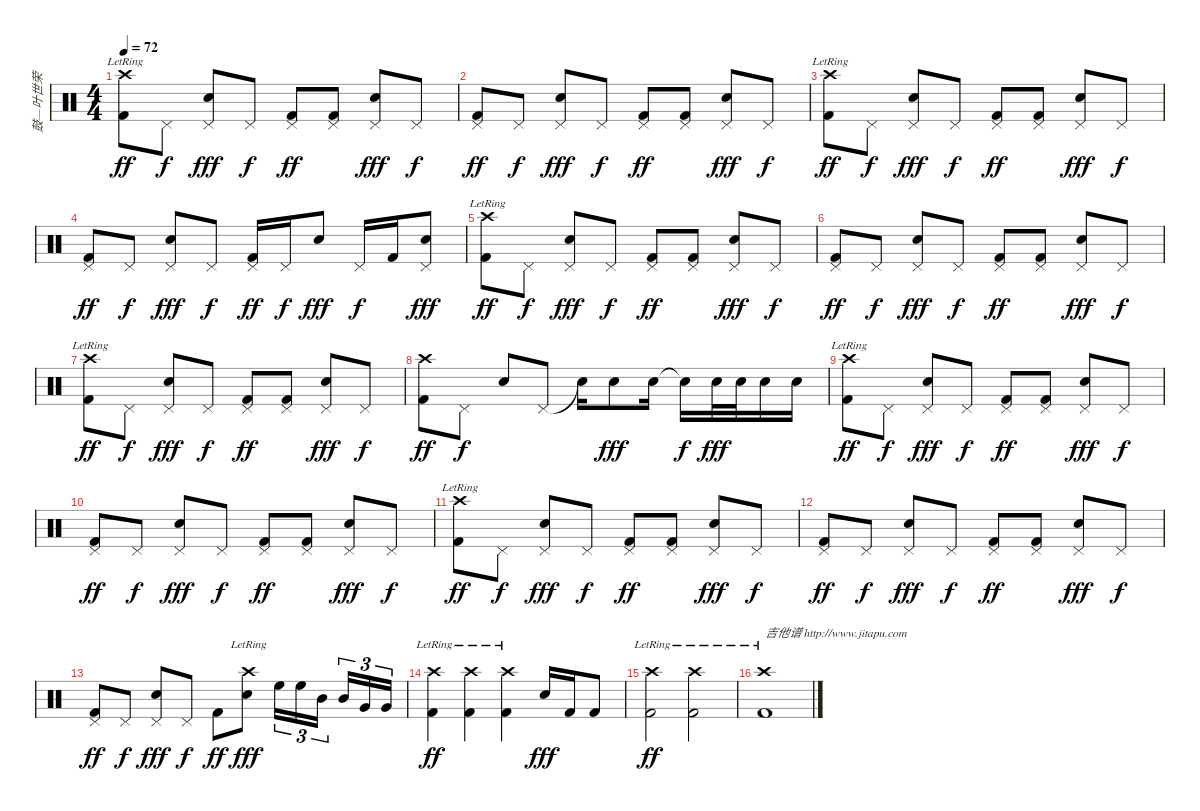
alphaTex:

\track ("鼓—叶世荣" "鼓—叶世荣") {instrument percussion}
\staff {score}
\articulation defaults
\ts (4 4)
\tempo 72
\clef neutral
\ks c
("Crash high (hit)"{lr} "Kick (hit) 2").8{dy ff} "Pedal Hi-Hat (hit)".8{dy f} ("Pedal Hi-Hat (hit)" "Electric Snare (hit)").8{dy fff} "Pedal Hi-Hat (hit)".8{dy f} ("Pedal Hi-Hat (hit)" "Kick (hit) 2").8{dy ff} ("Pedal Hi-Hat (hit)" "Kick (hit) 2").8 ("Pedal Hi-Hat (hit)" "Electric Snare (hit)").8{dy fff} "Pedal Hi-Hat (hit)".8{dy f} |
("Pedal Hi-Hat (hit)" "Kick (hit) 2").8{dy ff} "Pedal Hi-Hat (hit)".8{dy f} ("Pedal Hi-Hat (hit)" "Electric Snare (hit)").8{dy fff} "Pedal Hi-Hat (hit)".8{dy f} ("Pedal Hi-Hat (hit)" "Kick (hit) 2").8{dy ff} ("Pedal Hi-Hat (hit)" "Kick (hit) 2").8 ("Pedal Hi-Hat (hit)" "Electric Snare (hit)").8{dy fff} "Pedal Hi-Hat (hit)".8{dy f} |
("Crash high (hit)"{lr} "Kick (hit) 2").8{dy ff} "Pedal Hi-Hat (hit)".8{dy f} ("Pedal Hi-Hat (hit)" "Electric Snare (hit)").8{dy fff} "Pedal Hi-Hat (hit)".8{dy f} ("Pedal Hi-Hat (hit)" "Kick (hit) 2").8{dy ff} ("Pedal Hi-Hat (hit)" "Kick (hit) 2").8 ("Pedal Hi-Hat (hit)" "Electric Snare (hit)").8{dy fff} "Pedal Hi-Hat (hit)".8{dy f} |
("Pedal Hi-Hat (hit)" "Kick (hit) 2").8{dy ff} "Pedal Hi-Hat (hit)".8{dy f} ("Pedal Hi-Hat (hit)" "Electric Snare (hit)").8{dy fff} "Pedal Hi-Hat (hit)".8{dy f} ("Pedal Hi-Hat (hit)" "Kick (hit) 2").16{dy ff} "Pedal Hi-Hat (hit)".16{dy f} "Electric Snare (hit)".8{dy fff} "Pedal Hi-Hat (hit)".16{dy f} "Kick (hit) 2".16 ("Pedal Hi-Hat (hit)" "Electric Snare (hit)").8{dy fff} |
("Crash high (hit)"{lr} "Kick (hit) 2").8{dy ff} "Pedal Hi-Hat (hit)".8{dy f} ("Pedal Hi-Hat (hit)" "Electric Snare (hit)").8{dy fff} "Pedal Hi-Hat (hit)".8{dy f} ("Pedal Hi-Hat (hit)" "Kick (hit) 2").8{dy ff} ("Pedal Hi-Hat (hit)" "Kick (hit) 2").8 ("Pedal Hi-Hat (hit)" "Electric Snare (hit)").8{dy fff} "Pedal Hi-Hat (hit)".8{dy f} |
("Pedal Hi-Hat (hit)" "Kick (hit) 2").8{dy ff} "Pedal Hi-Hat (hit)".8{dy f} ("Pedal Hi-Hat (hit)" "Electric Snare (hit)").8{dy fff} "Pedal Hi-Hat (hit)".8{dy f} ("Pedal Hi-Hat (hit)" "Kick (hit) 2").8{dy ff} ("Pedal Hi-Hat (hit)" "Kick (hit) 2").8 ("Pedal Hi-Hat (hit)" "Electric Snare (hit)").8{dy fff} "Pedal Hi-Hat (hit)".8{dy f} |
("Crash high (hit)"{lr} "Kick (hit) 2").8{dy ff} "Pedal Hi-Hat (hit)".8{dy f} ("Pedal Hi-Hat (hit)" "Electric Snare (hit)").8{dy fff} "Pedal Hi-Hat (hit)".8{dy f} ("Pedal Hi-Hat (hit)" "Kick (hit) 2").8{dy ff} ("Pedal Hi-Hat (hit)" "Kick (hit) 2").8 ("Pedal Hi-Hat (hit)" "Electric Snare (hit)").8{dy fff} "Pedal Hi-Hat (hit)".8{dy f} |
("Crash high (hit)" "Kick (hit) 2").8{dy ff} "Pedal Hi-Hat (hit)".8{dy f} "Electric Snare (hit)".8 "Pedal Hi-Hat (hit)".8 "Snare (hit)"{t}.16 "Electric Snare (hit)".8{dy fff} "Electric Snare (hit)".16 "Snare (hit)"{t}.16{dy f} "Electric Snare (hit)".32{dy fff} "Electric Snare (hit)".32 "Electric Snare (hit)".16 "Electric Snare (hit)".16 |
("Crash high (hit)"{lr} "Kick (hit) 2").8{dy ff} "Pedal Hi-Hat (hit)".8{dy f} ("Pedal Hi-Hat (hit)" "Electric Snare (hit)").8{dy fff} "Pedal Hi-Hat (hit)".8{dy f} ("Pedal Hi-Hat (hit)" "Kick (hit) 2").8{dy ff} ("Pedal Hi-Hat (hit)" "Kick (hit) 2").8 ("Pedal Hi-Hat (hit)" "Electric Snare (hit)").8{dy fff} "Pedal Hi-Hat (hit)".8{dy f} |
("Pedal Hi-Hat (hit)" "Kick (hit) 2").8{dy ff} "Pedal Hi-Hat (hit)".8{dy f} ("Pedal Hi-Hat (hit)" "Electric Snare (hit)").8{dy fff} "Pedal Hi-Hat (hit)".8{dy f} ("Pedal Hi-Hat (hit)" "Kick (hit) 2").8{dy ff} ("Pedal Hi-Hat (hit)" "Kick (hit) 2").8 ("Pedal Hi-Hat (hit)" "Electric Snare (hit)").8{dy fff} "Pedal Hi-Hat (hit)".8{dy f} |
("Crash high (hit)"{lr} "Kick (hit) 2").8{dy ff} "Pedal Hi-Hat (hit)".8{dy f} ("Pedal Hi-Hat (hit)" "Electric Snare (hit)").8{dy fff} "Pedal Hi-Hat (hit)".8{dy f} ("Pedal Hi-Hat (hit)" "Kick (hit) 2").8{dy ff} ("Pedal Hi-Hat (hit)" "Kick (hit) 2").8 ("Pedal Hi-Hat (hit)" "Electric Snare (hit)").8{dy fff} "Pedal Hi-Hat (hit)".8{dy f} |
("Pedal Hi-Hat (hit)" "Kick (hit) 2").8{dy ff} "Pedal Hi-Hat (hit)".8{dy f} ("Pedal Hi-Hat (hit)" "Electric Snare (hit)").8{dy fff} "Pedal Hi-Hat (hit)".8{dy f} ("Pedal Hi-Hat (hit)" "Kick (hit) 2").8{dy ff} ("Pedal Hi-Hat (hit)" "Kick (hit) 2").8 ("Pedal Hi-Hat (hit)" "Electric Snare (hit)").8{dy fff} "Pedal Hi-Hat (hit)".8{dy f} |
("Pedal Hi-Hat (hit)" "Kick (hit) 2").8{dy ff} "Pedal Hi-Hat (hit)".8{dy f} ("Pedal Hi-Hat (hit)" "Electric Snare (hit)").8{dy fff} "Pedal Hi-Hat (hit)".8{dy f} "Kick (hit) 2".8{dy ff} ("Crash high (hit)"{lr} "Electric Snare (hit)").8{dy fff} "High Floor Tom (hit)".16{tu (3 2)} "High Floor Tom (hit)".16{tu (3 2)} "Mid Tom (hit)".16{tu (3 2) beam splitsecondary} "Mid Tom (hit)".16{tu (3 2)} "Very Low Tom (hit)".16{tu (3 2)} "Very Low Tom (hit)".16{tu (3 2)} |
("Crash high (hit)"{lr} "Kick (hit) 2").4{dy ff} ("Crash high (hit)"{lr} "Kick (hit) 2").4 ("Crash high (hit)"{lr} "Kick (hit) 2").4 "Electric Snare (hit)".16{dy fff} "Kick (hit) 2".16 "Kick (hit) 2".8 |
("Crash high (hit)"{lr} "Kick (hit) 2").2{dy ff} ("Crash high (hit)"{lr} "Kick (hit) 2").2 |
("Crash high (hit)"{lr} "Kick (hit) 2").1{txt "吉他谱 http://www.jitapu.com"}
